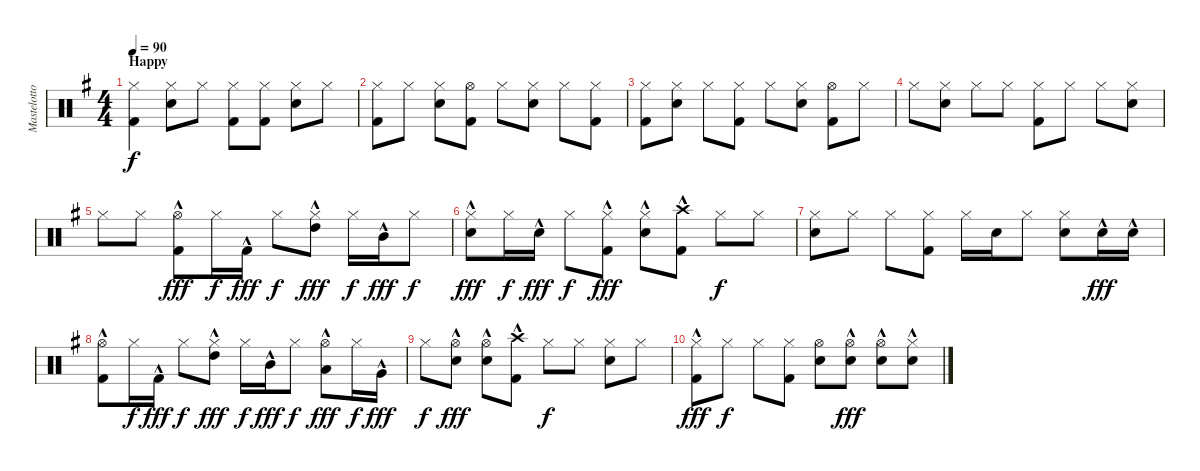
\track ("Mastelotto" "Mastelotto") {instrument percussion}
\staff {score}
\articulation defaults
\ts (4 4)
\section ("" "Happy")
\tempo 90
\clef neutral
\ks eminor
("Hi-Hat (closed)" "Kick (hit) 2").4{dy f} ("Hi-Hat (closed)" "Electric Snare (hit)").8 "Hi-Hat (closed)".8 ("Hi-Hat (closed)" "Kick (hit) 2").8 ("Hi-Hat (closed)" "Kick (hit) 2").8 ("Hi-Hat (closed)" "Electric Snare (hit)").8 "Hi-Hat (closed)".8 |
("Hi-Hat (closed)" "Kick (hit) 2").8 "Hi-Hat (closed)".8 ("Hi-Hat (closed)" "Electric Snare (hit)").8 ("Hi-Hat (open)" "Kick (hit) 2").8 "Hi-Hat (closed)".8 ("Hi-Hat (closed)" "Electric Snare (hit)").8 "Hi-Hat (closed)".8 ("Hi-Hat (closed)" "Kick (hit) 2").8 |
("Hi-Hat (closed)" "Kick (hit) 2").8 ("Hi-Hat (closed)" "Electric Snare (hit)").8 "Hi-Hat (closed)".8 ("Hi-Hat (closed)" "Kick (hit) 2").8 "Hi-Hat (closed)".8 ("Hi-Hat (closed)" "Electric Snare (hit)").8 ("Hi-Hat (open)" "Kick (hit) 2").8 "Hi-Hat (closed)".8 |
"Hi-Hat (closed)".8 ("Hi-Hat (closed)" "Electric Snare (hit)").8 "Hi-Hat (closed)".8 "Hi-Hat (closed)".8 ("Hi-Hat (closed)" "Kick (hit) 2").8 "Hi-Hat (closed)".8 "Hi-Hat (closed)".8 ("Hi-Hat (closed)" "Electric Snare (hit)").8 |
"Hi-Hat (closed)".8 "Hi-Hat (closed)".8 ("Hi-Hat (open)" "Kick (hit) 2"{hac}).8{dy fff} "Hi-Hat (closed)".16{dy f} "Kick (hit) 2"{hac}.16{dy fff} "Hi-Hat (closed)".8{dy f} ("Hi-Hat (closed)" "High Tom (hit)"{hac}).8{dy fff} "Hi-Hat (closed)".16{dy f} "Mid Tom (hit)"{hac}.16{dy fff} "Hi-Hat (closed)".8{dy f} |
("Hi-Hat (closed)" "Electric Snare (hit)"{hac}).8{dy fff} "Hi-Hat (closed)".16{dy f} "Electric Snare (hit)"{hac}.16{dy fff} "Hi-Hat (closed)".8{dy f} ("Hi-Hat (closed)" "Kick (hit) 2"{hac}).8{dy fff} ("Hi-Hat (closed)" "Electric Snare (hit)"{hac}).8 ("Crash high (hit)"{hac} "Kick (hit) 2").8 "Hi-Hat (closed)".8{dy f} "Hi-Hat (closed)".8 |
("Hi-Hat (closed)" "Electric Snare (hit)").8 "Hi-Hat (closed)".8 "Hi-Hat (closed)".8 ("Hi-Hat (closed)" "Kick (hit) 2").8 "Hi-Hat (closed)".16 "Electric Snare (hit)".16 "Hi-Hat (closed)".8 ("Hi-Hat (closed)" "Electric Snare (hit)").8 "Electric Snare (hit)"{hac}.16{dy fff} "Electric Snare (hit)"{hac}.16 |
("Hi-Hat (open)" "Kick (hit) 2"{hac}).8 "Hi-Hat (closed)".16{dy f} "Kick (hit) 2"{hac}.16{dy fff} "Hi-Hat (closed)".8{dy f} ("Hi-Hat (closed)" "High Tom (hit)"{hac}).8{dy fff} "Hi-Hat (closed)".16{dy f} "Mid Tom (hit)"{hac}.16{dy fff} "Hi-Hat (closed)".8{dy f} ("Hi-Hat (open)" "Low Tom (hit)"{hac}).8{dy fff} "Hi-Hat (closed)".16{dy f} "Very Low Tom (hit)"{hac}.16{dy fff} |
"Hi-Hat (closed)".8{dy f} ("Hi-Hat (open)" "Electric Snare (hit)"{hac}).8{dy fff} ("Hi-Hat (open)" "Electric Snare (hit)"{hac}).8 ("Crash high (hit)"{hac} "Kick (hit) 2"{hac}).8 "Hi-Hat (closed)".8{dy f} "Hi-Hat (closed)".8 ("Hi-Hat (closed)" "Electric Snare (hit)").8 "Hi-Hat (closed)".8 |
("Hi-Hat (closed)" "Kick (hit) 2"{hac}).8{dy fff} "Hi-Hat (closed)".8{dy f} "Hi-Hat (closed)".8 ("Hi-Hat (closed)" "Kick (hit) 2").8 ("Hi-Hat (open)" "Electric Snare (hit)").8 ("Hi-Hat (open)" "Electric Snare (hit)"{hac}).8{dy fff} ("Hi-Hat (open)" "Electric Snare (hit)"{hac}).8 ("Hi-Hat (closed)" "Electric Snare (hit)"{hac}).8
